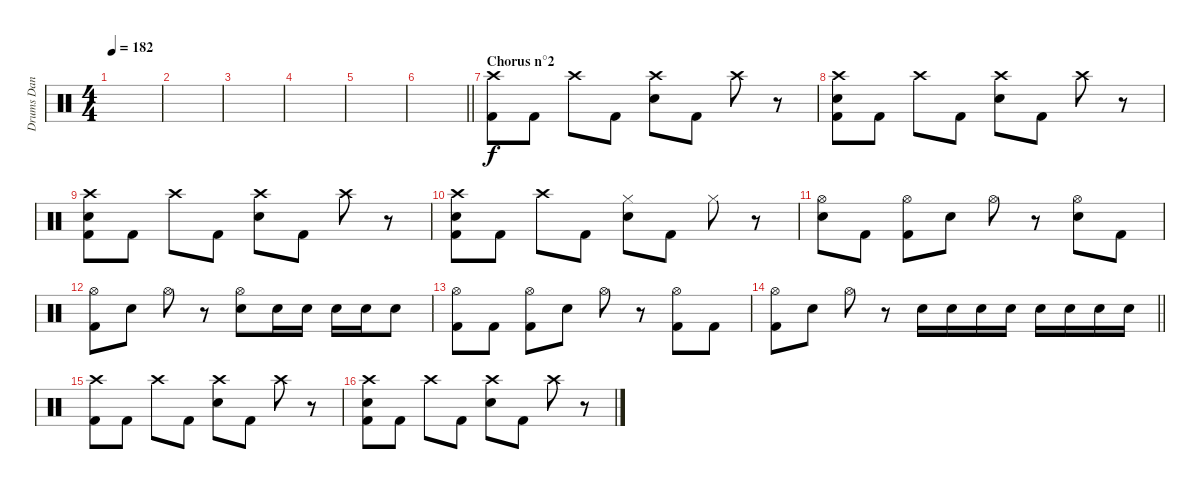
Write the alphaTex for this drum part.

\track ("Drums Dan Searle" "Drums Dan ") {instrument percussion}
\staff {score}
\articulation defaults
\ts (4 4)
\tempo 182
\clef neutral
\ks c
|
|
|
|
|
\barLineRight lightlight
|
\section ("" "Chorus n°2")
("Crash high (hit)" "Kick (hit) 2").8 "Kick (hit) 2".8 "Crash high (hit)".8 "Kick (hit) 2".8 ("Crash high (hit)" "Electric Snare (hit)").8 "Kick (hit) 2".8 "Crash high (hit)".8 r.8 |
("Crash high (hit)" "Electric Snare (hit)" "Kick (hit) 2").8 "Kick (hit) 2".8 "Crash high (hit)".8 "Kick (hit) 2".8 ("Crash high (hit)" "Electric Snare (hit)").8 "Kick (hit) 2".8 "Crash high (hit)".8 r.8 |
("Crash high (hit)" "Electric Snare (hit)" "Kick (hit) 2").8 "Kick (hit) 2".8 "Crash high (hit)".8 "Kick (hit) 2".8 ("Crash high (hit)" "Electric Snare (hit)").8 "Kick (hit) 2".8 "Crash high (hit)".8 r.8 |
("Crash high (hit)" "Electric Snare (hit)" "Kick (hit) 2").8 "Kick (hit) 2".8 "Crash high (hit)".8 "Kick (hit) 2".8 ("Hi-Hat (closed)" "Electric Snare (hit)").8 "Kick (hit) 2".8 "Hi-Hat (closed)".8 r.8 |
("Hi-Hat (open)" "Electric Snare (hit)").8 "Kick (hit) 2".8 ("Hi-Hat (open)" "Kick (hit) 2").8 "Electric Snare (hit)".8 "Hi-Hat (open)".8 r.8 ("Hi-Hat (open)" "Electric Snare (hit)").8 "Kick (hit) 2".8 |
("Hi-Hat (open)" "Kick (hit) 2").8 "Electric Snare (hit)".8 "Hi-Hat (open)".8 r.8 ("Hi-Hat (open)" "Electric Snare (hit)").8 "Electric Snare (hit)".16 "Electric Snare (hit)".16 "Electric Snare (hit)".16 "Electric Snare (hit)".16 "Electric Snare (hit)".8 |
("Hi-Hat (open)" "Kick (hit) 2").8 "Kick (hit) 2".8 ("Hi-Hat (open)" "Kick (hit) 2").8 "Electric Snare (hit)".8 "Hi-Hat (open)".8 r.8 ("Hi-Hat (open)" "Kick (hit) 2").8 "Kick (hit) 2".8 |
\barLineRight lightlight
("Hi-Hat (open)" "Kick (hit) 2").8 "Electric Snare (hit)".8 "Hi-Hat (open)".8 r.8 "Electric Snare (hit)".16 "Electric Snare (hit)".16 "Electric Snare (hit)".16 "Electric Snare (hit)".16 "Electric Snare (hit)".16 "Electric Snare (hit)".16 "Electric Snare (hit)".16 "Electric Snare (hit)".16 |
("Crash high (hit)" "Kick (hit) 2").8 "Kick (hit) 2".8 "Crash high (hit)".8 "Kick (hit) 2".8 ("Crash high (hit)" "Electric Snare (hit)").8 "Kick (hit) 2".8 "Crash high (hit)".8 r.8 |
("Crash high (hit)" "Electric Snare (hit)" "Kick (hit) 2").8 "Kick (hit) 2".8 "Crash high (hit)".8 "Kick (hit) 2".8 ("Crash high (hit)" "Electric Snare (hit)").8 "Kick (hit) 2".8 "Crash high (hit)".8 r.8
